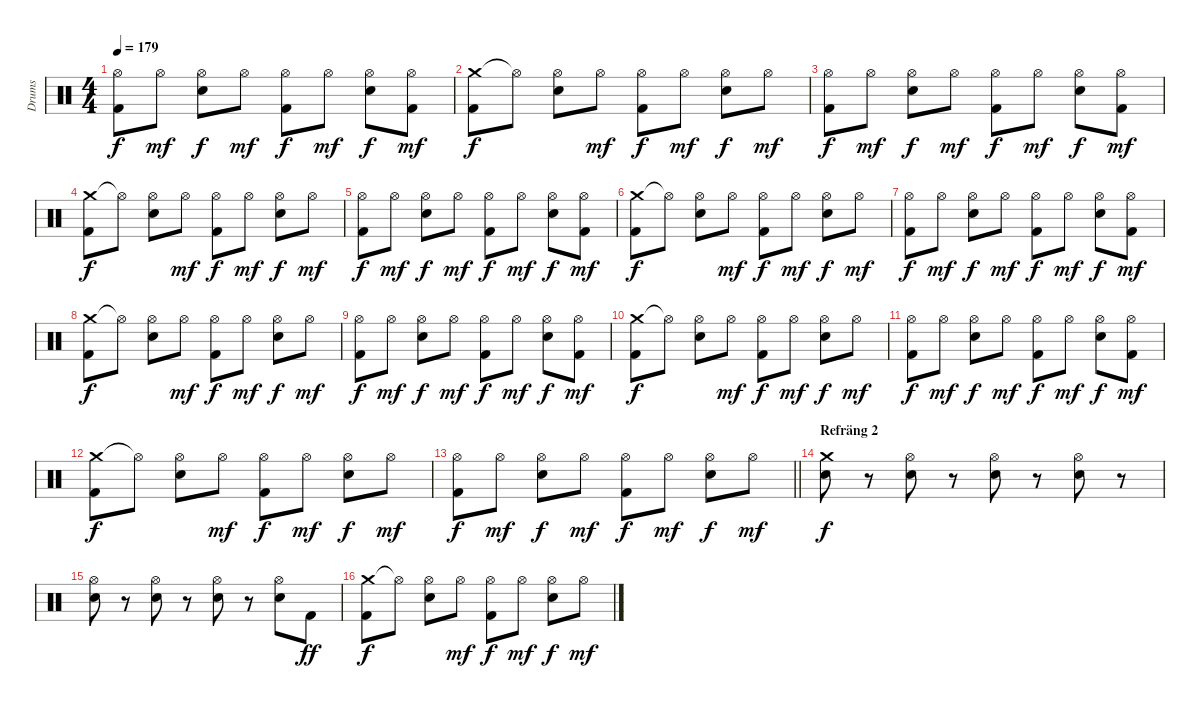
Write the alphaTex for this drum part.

\track ("Drums" "Drums") {instrument percussion}
\staff {score}
\articulation defaults
\ts (4 4)
\tempo 179
\clef neutral
\ks c
("Hi-Hat (open)" "Kick (hit) 2").8{dy f} "Hi-Hat (open)".8{dy mf} ("Hi-Hat (open)" "Electric Snare (hit)").8{dy f} "Hi-Hat (open)".8{dy mf} ("Hi-Hat (open)" "Kick (hit) 2").8{dy f} "Hi-Hat (open)".8{dy mf} ("Hi-Hat (open)" "Electric Snare (hit)").8{dy f} ("Hi-Hat (open)" "Kick (hit) 2").8{dy mf} |
("Crash medium (hit)" "Kick (hit) 2").8{dy f} "Hi-Hat (open)"{t}.8 ("Hi-Hat (open)" "Electric Snare (hit)").8 "Hi-Hat (open)".8{dy mf} ("Hi-Hat (open)" "Kick (hit) 2").8{dy f} "Hi-Hat (open)".8{dy mf} ("Hi-Hat (open)" "Electric Snare (hit)").8{dy f} "Hi-Hat (open)".8{dy mf} |
("Hi-Hat (open)" "Kick (hit) 2").8{dy f} "Hi-Hat (open)".8{dy mf} ("Hi-Hat (open)" "Electric Snare (hit)").8{dy f} "Hi-Hat (open)".8{dy mf} ("Hi-Hat (open)" "Kick (hit) 2").8{dy f} "Hi-Hat (open)".8{dy mf} ("Hi-Hat (open)" "Electric Snare (hit)").8{dy f} ("Hi-Hat (open)" "Kick (hit) 2").8{dy mf} |
("Crash medium (hit)" "Kick (hit) 2").8{dy f} "Hi-Hat (open)"{t}.8 ("Hi-Hat (open)" "Electric Snare (hit)").8 "Hi-Hat (open)".8{dy mf} ("Hi-Hat (open)" "Kick (hit) 2").8{dy f} "Hi-Hat (open)".8{dy mf} ("Hi-Hat (open)" "Electric Snare (hit)").8{dy f} "Hi-Hat (open)".8{dy mf} |
("Hi-Hat (open)" "Kick (hit) 2").8{dy f} "Hi-Hat (open)".8{dy mf} ("Hi-Hat (open)" "Electric Snare (hit)").8{dy f} "Hi-Hat (open)".8{dy mf} ("Hi-Hat (open)" "Kick (hit) 2").8{dy f} "Hi-Hat (open)".8{dy mf} ("Hi-Hat (open)" "Electric Snare (hit)").8{dy f} ("Hi-Hat (open)" "Kick (hit) 2").8{dy mf} |
("Crash medium (hit)" "Kick (hit) 2").8{dy f} "Hi-Hat (open)"{t}.8 ("Hi-Hat (open)" "Electric Snare (hit)").8 "Hi-Hat (open)".8{dy mf} ("Hi-Hat (open)" "Kick (hit) 2").8{dy f} "Hi-Hat (open)".8{dy mf} ("Hi-Hat (open)" "Electric Snare (hit)").8{dy f} "Hi-Hat (open)".8{dy mf} |
("Hi-Hat (open)" "Kick (hit) 2").8{dy f} "Hi-Hat (open)".8{dy mf} ("Hi-Hat (open)" "Electric Snare (hit)").8{dy f} "Hi-Hat (open)".8{dy mf} ("Hi-Hat (open)" "Kick (hit) 2").8{dy f} "Hi-Hat (open)".8{dy mf} ("Hi-Hat (open)" "Electric Snare (hit)").8{dy f} ("Hi-Hat (open)" "Kick (hit) 2").8{dy mf} |
("Crash medium (hit)" "Kick (hit) 2").8{dy f} "Hi-Hat (open)"{t}.8 ("Hi-Hat (open)" "Electric Snare (hit)").8 "Hi-Hat (open)".8{dy mf} ("Hi-Hat (open)" "Kick (hit) 2").8{dy f} "Hi-Hat (open)".8{dy mf} ("Hi-Hat (open)" "Electric Snare (hit)").8{dy f} "Hi-Hat (open)".8{dy mf} |
("Hi-Hat (open)" "Kick (hit) 2").8{dy f} "Hi-Hat (open)".8{dy mf} ("Hi-Hat (open)" "Electric Snare (hit)").8{dy f} "Hi-Hat (open)".8{dy mf} ("Hi-Hat (open)" "Kick (hit) 2").8{dy f} "Hi-Hat (open)".8{dy mf} ("Hi-Hat (open)" "Electric Snare (hit)").8{dy f} ("Hi-Hat (open)" "Kick (hit) 2").8{dy mf} |
("Crash medium (hit)" "Kick (hit) 2").8{dy f} "Hi-Hat (open)"{t}.8 ("Hi-Hat (open)" "Electric Snare (hit)").8 "Hi-Hat (open)".8{dy mf} ("Hi-Hat (open)" "Kick (hit) 2").8{dy f} "Hi-Hat (open)".8{dy mf} ("Hi-Hat (open)" "Electric Snare (hit)").8{dy f} "Hi-Hat (open)".8{dy mf} |
("Hi-Hat (open)" "Kick (hit) 2").8{dy f} "Hi-Hat (open)".8{dy mf} ("Hi-Hat (open)" "Electric Snare (hit)").8{dy f} "Hi-Hat (open)".8{dy mf} ("Hi-Hat (open)" "Kick (hit) 2").8{dy f} "Hi-Hat (open)".8{dy mf} ("Hi-Hat (open)" "Electric Snare (hit)").8{dy f} ("Hi-Hat (open)" "Kick (hit) 2").8{dy mf} |
("Crash medium (hit)" "Kick (hit) 2").8{dy f} "Hi-Hat (open)"{t}.8 ("Hi-Hat (open)" "Electric Snare (hit)").8 "Hi-Hat (open)".8{dy mf} ("Hi-Hat (open)" "Kick (hit) 2").8{dy f} "Hi-Hat (open)".8{dy mf} ("Hi-Hat (open)" "Electric Snare (hit)").8{dy f} "Hi-Hat (open)".8{dy mf} |
\barLineRight lightlight
("Hi-Hat (open)" "Kick (hit) 2").8{dy f} "Hi-Hat (open)".8{dy mf} ("Hi-Hat (open)" "Electric Snare (hit)").8{dy f} "Hi-Hat (open)".8{dy mf} ("Hi-Hat (open)" "Kick (hit) 2").8{dy f} "Hi-Hat (open)".8{dy mf} ("Hi-Hat (open)" "Electric Snare (hit)").8{dy f} "Hi-Hat (open)".8{dy mf} |
\section ("" "Refräng 2")
("Crash medium (hit)" "Electric Snare (hit)").8{dy f} r.8 ("Hi-Hat (open)" "Electric Snare (hit)").8 r.8 ("Hi-Hat (open)" "Electric Snare (hit)").8 r.8 ("Hi-Hat (open)" "Electric Snare (hit)").8 r.8 |
("Hi-Hat (open)" "Electric Snare (hit)").8 r.8 ("Hi-Hat (open)" "Electric Snare (hit)").8 r.8 ("Hi-Hat (open)" "Electric Snare (hit)").8 r.8 ("Hi-Hat (open)" "Electric Snare (hit)").8 "Kick (hit) 2".8{dy ff} |
("Crash medium (hit)" "Kick (hit) 2").8{dy f} "Hi-Hat (open)"{t}.8 ("Hi-Hat (open)" "Electric Snare (hit)").8 "Hi-Hat (open)".8{dy mf} ("Hi-Hat (open)" "Kick (hit) 2").8{dy f} "Hi-Hat (open)".8{dy mf} ("Hi-Hat (open)" "Electric Snare (hit)").8{dy f} "Hi-Hat (open)".8{dy mf}
